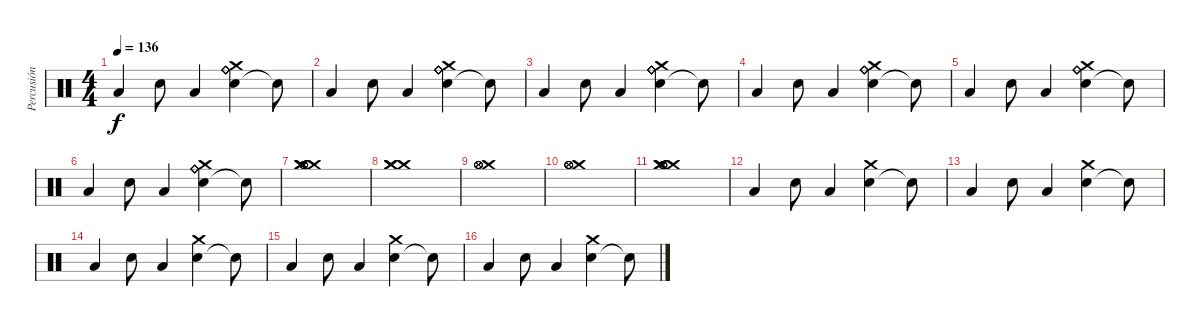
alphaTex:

\track ("Percusión" "Percusión") {instrument percussion}
\staff {score}
\articulation defaults
\ts (4 4)
\tempo 136
\clef neutral
\ks c "Low Tom (hit)".4{dy f} "Electric Snare (hit)".8 "Low Tom (hit)".4
("Electric Snare (hit)" "Crash medium (hit)" "Ride (bell)" "Ride (bell)" "Ride (bell)" "Ride (bell)").4 "Snare (hit)"{t}.8 |
"Low Tom (hit)".4 "Electric Snare (hit)".8 "Low Tom (hit)".4 ("Electric Snare (hit)" "Crash medium (hit)" "Ride (bell)" "Ride (bell)" "Ride (bell)" "Ride (bell)").4 "Snare (hit)"{t}.8 |
"Low Tom (hit)".4 "Electric Snare (hit)".8 "Low Tom (hit)".4 ("Electric Snare (hit)" "Crash medium (hit)" "Ride (bell)" "Ride (bell)" "Ride (bell)" "Ride (bell)").4 "Snare (hit)"{t}.8 |
"Low Tom (hit)".4 "Electric Snare (hit)".8 "Low Tom (hit)".4 ("Electric Snare (hit)" "Crash medium (hit)" "Ride (bell)" "Ride (bell)" "Ride (bell)" "Ride (bell)").4 "Snare (hit)"{t}.8 |
"Low Tom (hit)".4 "Electric Snare (hit)".8 "Low Tom (hit)".4 ("Electric Snare (hit)" "Crash medium (hit)" "Ride (bell)" "Ride (bell)" "Ride (bell)" "Ride (bell)").4 "Snare (hit)"{t}.8 |
"Low Tom (hit)".4 "Electric Snare (hit)".8 "Low Tom (hit)".4 ("Electric Snare (hit)" "Crash medium (hit)" "Ride (bell)" "Ride (bell)" "Ride (bell)" "Ride (bell)").4 "Snare (hit)"{t}.8 |
("Crash medium (hit)" "Crash medium (hit)" "Crash medium (hit)" "Hi-Hat (open)" "Hi-Hat (open)" "Hi-Hat (open)").1 |
("Crash medium (hit)" "Crash medium (hit)" "Crash medium (hit)").1 |
("Crash medium (hit)" "Hi-Hat (open)" "Hi-Hat (open)" "Hi-Hat (open)" "Hi-Hat (open)").1 |
("Crash medium (hit)" "Hi-Hat (open)" "Hi-Hat (open)" "Hi-Hat (open)" "Hi-Hat (open)").1 |
("Crash medium (hit)" "Crash medium (hit)" "Crash medium (hit)" "Hi-Hat (open)" "Hi-Hat (open)" "Hi-Hat (open)").1 |
"Low Tom (hit)".4 "Electric Snare (hit)".8 "Low Tom (hit)".4 ("Electric Snare (hit)" "Crash medium (hit)").4 "Snare (hit)"{t}.8 |
"Low Tom (hit)".4 "Electric Snare (hit)".8 "Low Tom (hit)".4 ("Electric Snare (hit)" "Crash medium (hit)").4 "Snare (hit)"{t}.8 |
"Low Tom (hit)".4 "Electric Snare (hit)".8 "Low Tom (hit)".4 ("Electric Snare (hit)" "Crash medium (hit)").4 "Snare (hit)"{t}.8 |
"Low Tom (hit)".4 "Electric Snare (hit)".8 "Low Tom (hit)".4 ("Electric Snare (hit)" "Crash medium (hit)").4 "Snare (hit)"{t}.8 |
"Low Tom (hit)".4 "Electric Snare (hit)".8 "Low Tom (hit)".4 ("Electric Snare (hit)" "Crash medium (hit)").4 "Snare (hit)"{t}.8
